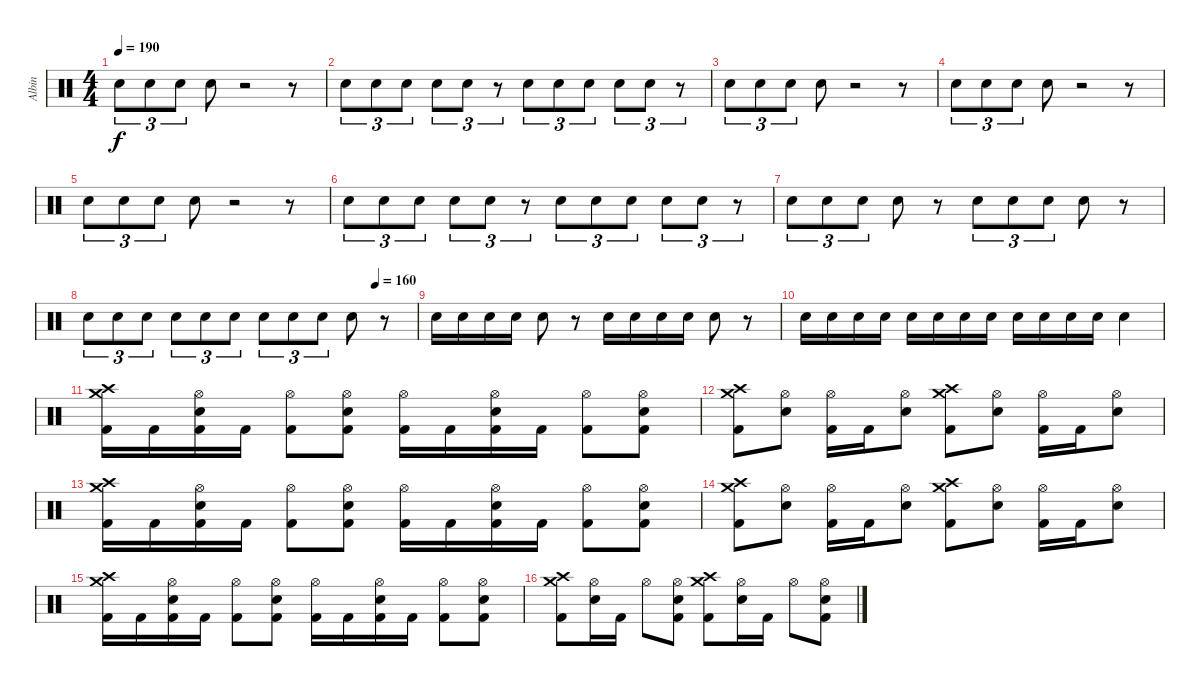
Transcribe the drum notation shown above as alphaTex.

\track ("Albin" "Albin") {instrument percussion}
\staff {score}
\articulation defaults
\ts (4 4)
\tempo 190
\clef neutral
\ks c "Electric Snare (hit)".8{tu (3 2) dy f} "Electric Snare (hit)".8{tu (3 2)} "Electric Snare (hit)".8{tu (3 2)} "Electric Snare (hit)".8
r.2 r.8 |
"Electric Snare (hit)".8{tu (3 2)} "Electric Snare (hit)".8{tu (3 2)} "Electric Snare (hit)".8{tu (3 2)} "Electric Snare (hit)".8{tu (3 2)} "Electric Snare (hit)".8{tu (3 2)} r.8{tu (3 2)} "Electric Snare (hit)".8{tu (3 2)} "Electric Snare (hit)".8{tu (3 2)} "Electric Snare (hit)".8{tu (3 2)} "Electric Snare (hit)".8{tu (3 2)} "Electric Snare (hit)".8{tu (3 2)} r.8{tu (3 2)} |
"Electric Snare (hit)".8{tu (3 2)} "Electric Snare (hit)".8{tu (3 2)} "Electric Snare (hit)".8{tu (3 2)} "Electric Snare (hit)".8 r.2 r.8 |
"Electric Snare (hit)".8{tu (3 2)} "Electric Snare (hit)".8{tu (3 2)} "Electric Snare (hit)".8{tu (3 2)} "Electric Snare (hit)".8 r.2 r.8 |
"Electric Snare (hit)".8{tu (3 2)} "Electric Snare (hit)".8{tu (3 2)} "Electric Snare (hit)".8{tu (3 2)} "Electric Snare (hit)".8 r.2 r.8 |
"Electric Snare (hit)".8{tu (3 2)} "Electric Snare (hit)".8{tu (3 2)} "Electric Snare (hit)".8{tu (3 2)} "Electric Snare (hit)".8{tu (3 2)} "Electric Snare (hit)".8{tu (3 2)} r.8{tu (3 2)} "Electric Snare (hit)".8{tu (3 2)} "Electric Snare (hit)".8{tu (3 2)} "Electric Snare (hit)".8{tu (3 2)} "Electric Snare (hit)".8{tu (3 2)} "Electric Snare (hit)".8{tu (3 2)} r.8{tu (3 2)} |
"Electric Snare (hit)".8{tu (3 2)} "Electric Snare (hit)".8{tu (3 2)} "Electric Snare (hit)".8{tu (3 2)} "Electric Snare (hit)".8 r.8 "Electric Snare (hit)".8{tu (3 2)} "Electric Snare (hit)".8{tu (3 2)} "Electric Snare (hit)".8{tu (3 2)} "Electric Snare (hit)".8 r.8 |
\tempo (160 0.875)
"Electric Snare (hit)".8{tu (3 2)} "Electric Snare (hit)".8{tu (3 2)} "Electric Snare (hit)".8{tu (3 2)} "Electric Snare (hit)".8{tu (3 2)} "Electric Snare (hit)".8{tu (3 2)} "Electric Snare (hit)".8{tu (3 2)} "Electric Snare (hit)".8{tu (3 2)} "Electric Snare (hit)".8{tu (3 2)} "Electric Snare (hit)".8{tu (3 2)} "Electric Snare (hit)".8 r.8 |
"Electric Snare (hit)".16 "Electric Snare (hit)".16 "Electric Snare (hit)".16 "Electric Snare (hit)".16 "Electric Snare (hit)".8 r.8 "Electric Snare (hit)".16 "Electric Snare (hit)".16 "Electric Snare (hit)".16 "Electric Snare (hit)".16 "Electric Snare (hit)".8 r.8 |
"Electric Snare (hit)".16 "Electric Snare (hit)".16 "Electric Snare (hit)".16 "Electric Snare (hit)".16 "Electric Snare (hit)".16 "Electric Snare (hit)".16 "Electric Snare (hit)".16 "Electric Snare (hit)".16 "Electric Snare (hit)".16 "Electric Snare (hit)".16 "Electric Snare (hit)".16 "Electric Snare (hit)".16 "Electric Snare (hit)".4 |
("Kick (hit) 2" "Crash high (hit)" "Crash medium (hit)").16 "Kick (hit) 2".16 ("Kick (hit) 2" "Electric Snare (hit)" "Hi-Hat (open)").16 "Kick (hit) 2".16 ("Kick (hit) 2" "Hi-Hat (open)").8 ("Kick (hit) 2" "Electric Snare (hit)" "Hi-Hat (open)").8 ("Kick (hit) 2" "Hi-Hat (open)").16 "Kick (hit) 2".16 ("Kick (hit) 2" "Electric Snare (hit)" "Hi-Hat (open)").16 "Kick (hit) 2".16 ("Kick (hit) 2" "Hi-Hat (open)").8 ("Kick (hit) 2" "Electric Snare (hit)" "Hi-Hat (open)").8 |
("Kick (hit) 2" "Crash medium (hit)" "Crash high (hit)").8 ("Electric Snare (hit)" "Hi-Hat (open)").8 ("Kick (hit) 2" "Hi-Hat (open)").16 "Kick (hit) 2".16 ("Electric Snare (hit)" "Hi-Hat (open)").8 ("Kick (hit) 2" "Crash high (hit)" "Crash medium (hit)").8 ("Electric Snare (hit)" "Hi-Hat (open)").8 ("Kick (hit) 2" "Hi-Hat (open)").16 "Kick (hit) 2".16 ("Electric Snare (hit)" "Hi-Hat (open)").8 |
("Kick (hit) 2" "Crash medium (hit)" "Crash high (hit)").16 "Kick (hit) 2".16 ("Kick (hit) 2" "Electric Snare (hit)" "Hi-Hat (open)").16 "Kick (hit) 2".16 ("Kick (hit) 2" "Hi-Hat (open)").8 ("Kick (hit) 2" "Electric Snare (hit)" "Hi-Hat (open)").8 ("Kick (hit) 2" "Hi-Hat (open)").16 "Kick (hit) 2".16 ("Kick (hit) 2" "Electric Snare (hit)" "Hi-Hat (open)").16 "Kick (hit) 2".16 ("Kick (hit) 2" "Hi-Hat (open)").8 ("Kick (hit) 2" "Electric Snare (hit)" "Hi-Hat (open)").8 |
("Kick (hit) 2" "Crash high (hit)" "Crash medium (hit)").8 ("Electric Snare (hit)" "Hi-Hat (open)").8 ("Kick (hit) 2" "Hi-Hat (open)").16 "Kick (hit) 2".16 ("Electric Snare (hit)" "Hi-Hat (open)").8 ("Kick (hit) 2" "Crash medium (hit)" "Crash high (hit)").8 ("Electric Snare (hit)" "Hi-Hat (open)").8 ("Kick (hit) 2" "Hi-Hat (open)").16 "Kick (hit) 2".16 ("Electric Snare (hit)" "Hi-Hat (open)").8 |
("Kick (hit) 2" "Crash high (hit)" "Crash medium (hit)").16 "Kick (hit) 2".16 ("Kick (hit) 2" "Electric Snare (hit)" "Hi-Hat (open)").16 "Kick (hit) 2".16 ("Kick (hit) 2" "Hi-Hat (open)").8 ("Kick (hit) 2" "Electric Snare (hit)" "Hi-Hat (open)").8 ("Kick (hit) 2" "Hi-Hat (open)").16 "Kick (hit) 2".16 ("Kick (hit) 2" "Electric Snare (hit)" "Hi-Hat (open)").16 "Kick (hit) 2".16 ("Kick (hit) 2" "Hi-Hat (open)").8 ("Kick (hit) 2" "Electric Snare (hit)" "Hi-Hat (open)").8 |
("Kick (hit) 2" "Crash medium (hit)" "Crash high (hit)").8 ("Electric Snare (hit)" "Hi-Hat (open)").16 "Kick (hit) 2".16 "Hi-Hat (open)".8 ("Kick (hit) 2" "Electric Snare (hit)" "Hi-Hat (open)").8 ("Kick (hit) 2" "Crash high (hit)" "Crash medium (hit)").8 ("Electric Snare (hit)" "Hi-Hat (open)").16 "Kick (hit) 2".16 "Hi-Hat (open)".8 ("Kick (hit) 2" "Electric Snare (hit)" "Hi-Hat (open)").8
